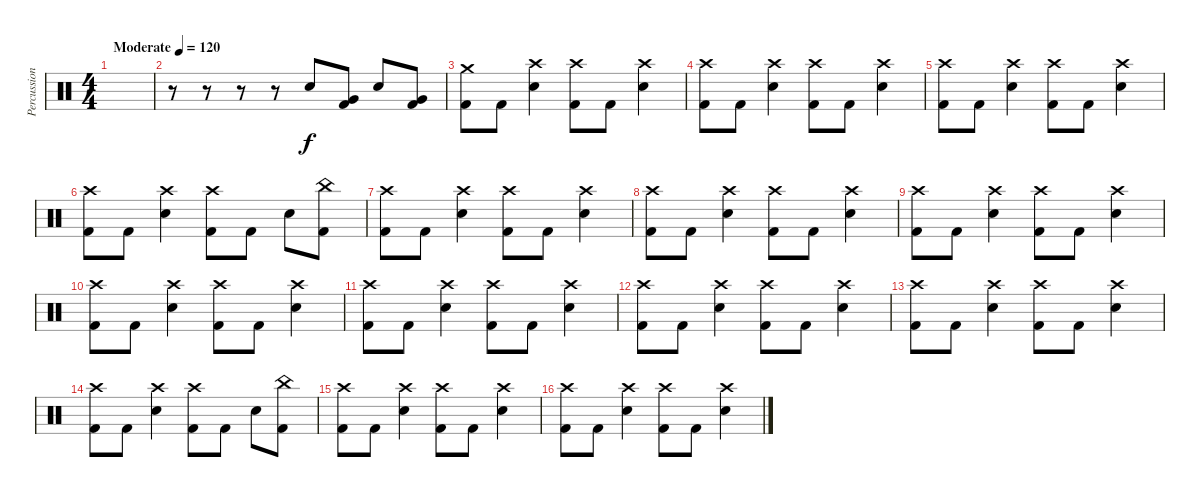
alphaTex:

\track ("Percussion" "Percussion") {instrument percussion}
\staff {score}
\articulation defaults
\ts (4 4)
\tempo (120 "Moderate")
\clef neutral
\ks c
|
r.8 r.8 r.8 r.8 "Snare (hit) 2".8 ("Very Low Tom (hit)" "Kick (hit) 2").8 "Snare (hit) 2".8 ("Very Low Tom (hit)" "Kick (hit) 2").8 |
("Crash medium (hit)" "Kick (hit) 2").8 "Kick (hit) 2".8 ("Crash high (hit)" "Snare (hit) 2").4 ("Crash high (hit)" "Kick (hit) 2").8 "Kick (hit) 2".8 ("Crash high (hit)" "Snare (hit) 2").4 |
("Crash high (hit)" "Kick (hit) 2").8 "Kick (hit) 2".8 ("Crash high (hit)" "Snare (hit) 2").4 ("Crash high (hit)" "Kick (hit) 2").8 "Kick (hit) 2".8 ("Crash high (hit)" "Snare (hit) 2").4 |
("Crash high (hit)" "Kick (hit) 2").8 "Kick (hit) 2".8 ("Crash high (hit)" "Snare (hit) 2").4 ("Crash high (hit)" "Kick (hit) 2").8 "Kick (hit) 2".8 ("Crash high (hit)" "Snare (hit) 2").4 |
("Crash high (hit)" "Kick (hit) 2").8 "Kick (hit) 2".8 ("Crash high (hit)" "Snare (hit) 2").4 ("Crash high (hit)" "Kick (hit) 2").8 "Kick (hit) 2".8 "Snare (hit) 2".8 ("China (hit)" "Kick (hit) 2").8 |
("Crash high (hit)" "Kick (hit) 2").8 "Kick (hit) 2".8 ("Crash high (hit)" "Snare (hit) 2").4 ("Crash high (hit)" "Kick (hit) 2").8 "Kick (hit) 2".8 ("Crash high (hit)" "Snare (hit) 2").4 |
("Crash high (hit)" "Kick (hit) 2").8 "Kick (hit) 2".8 ("Crash high (hit)" "Snare (hit) 2").4 ("Crash high (hit)" "Kick (hit) 2").8 "Kick (hit) 2".8 ("Crash high (hit)" "Snare (hit) 2").4 |
("Crash high (hit)" "Kick (hit) 2").8 "Kick (hit) 2".8 ("Crash high (hit)" "Snare (hit) 2").4 ("Crash high (hit)" "Kick (hit) 2").8 "Kick (hit) 2".8 ("Crash high (hit)" "Snare (hit) 2").4 |
("Crash high (hit)" "Kick (hit) 2").8 "Kick (hit) 2".8 ("Crash high (hit)" "Snare (hit) 2").4 ("Crash high (hit)" "Kick (hit) 2").8 "Kick (hit) 2".8 ("Crash high (hit)" "Snare (hit) 2").4 |
("Crash high (hit)" "Kick (hit) 2").8 "Kick (hit) 2".8 ("Crash high (hit)" "Snare (hit) 2").4 ("Crash high (hit)" "Kick (hit) 2").8 "Kick (hit) 2".8 ("Crash high (hit)" "Snare (hit) 2").4 |
("Crash high (hit)" "Kick (hit) 2").8 "Kick (hit) 2".8 ("Crash high (hit)" "Snare (hit) 2").4 ("Crash high (hit)" "Kick (hit) 2").8 "Kick (hit) 2".8 ("Crash high (hit)" "Snare (hit) 2").4 |
("Crash high (hit)" "Kick (hit) 2").8 "Kick (hit) 2".8 ("Crash high (hit)" "Snare (hit) 2").4 ("Crash high (hit)" "Kick (hit) 2").8 "Kick (hit) 2".8 ("Crash high (hit)" "Snare (hit) 2").4 |
("Crash high (hit)" "Kick (hit) 2").8 "Kick (hit) 2".8 ("Crash high (hit)" "Snare (hit) 2").4 ("Crash high (hit)" "Kick (hit) 2").8 "Kick (hit) 2".8 "Snare (hit) 2".8 ("China (hit)" "Kick (hit) 2").8 |
("Crash high (hit)" "Kick (hit) 2").8 "Kick (hit) 2".8 ("Crash high (hit)" "Snare (hit) 2").4 ("Crash high (hit)" "Kick (hit) 2").8 "Kick (hit) 2".8 ("Crash high (hit)" "Snare (hit) 2").4 |
("Crash high (hit)" "Kick (hit) 2").8 "Kick (hit) 2".8 ("Crash high (hit)" "Snare (hit) 2").4 ("Crash high (hit)" "Kick (hit) 2").8 "Kick (hit) 2".8 ("Crash high (hit)" "Snare (hit) 2").4
